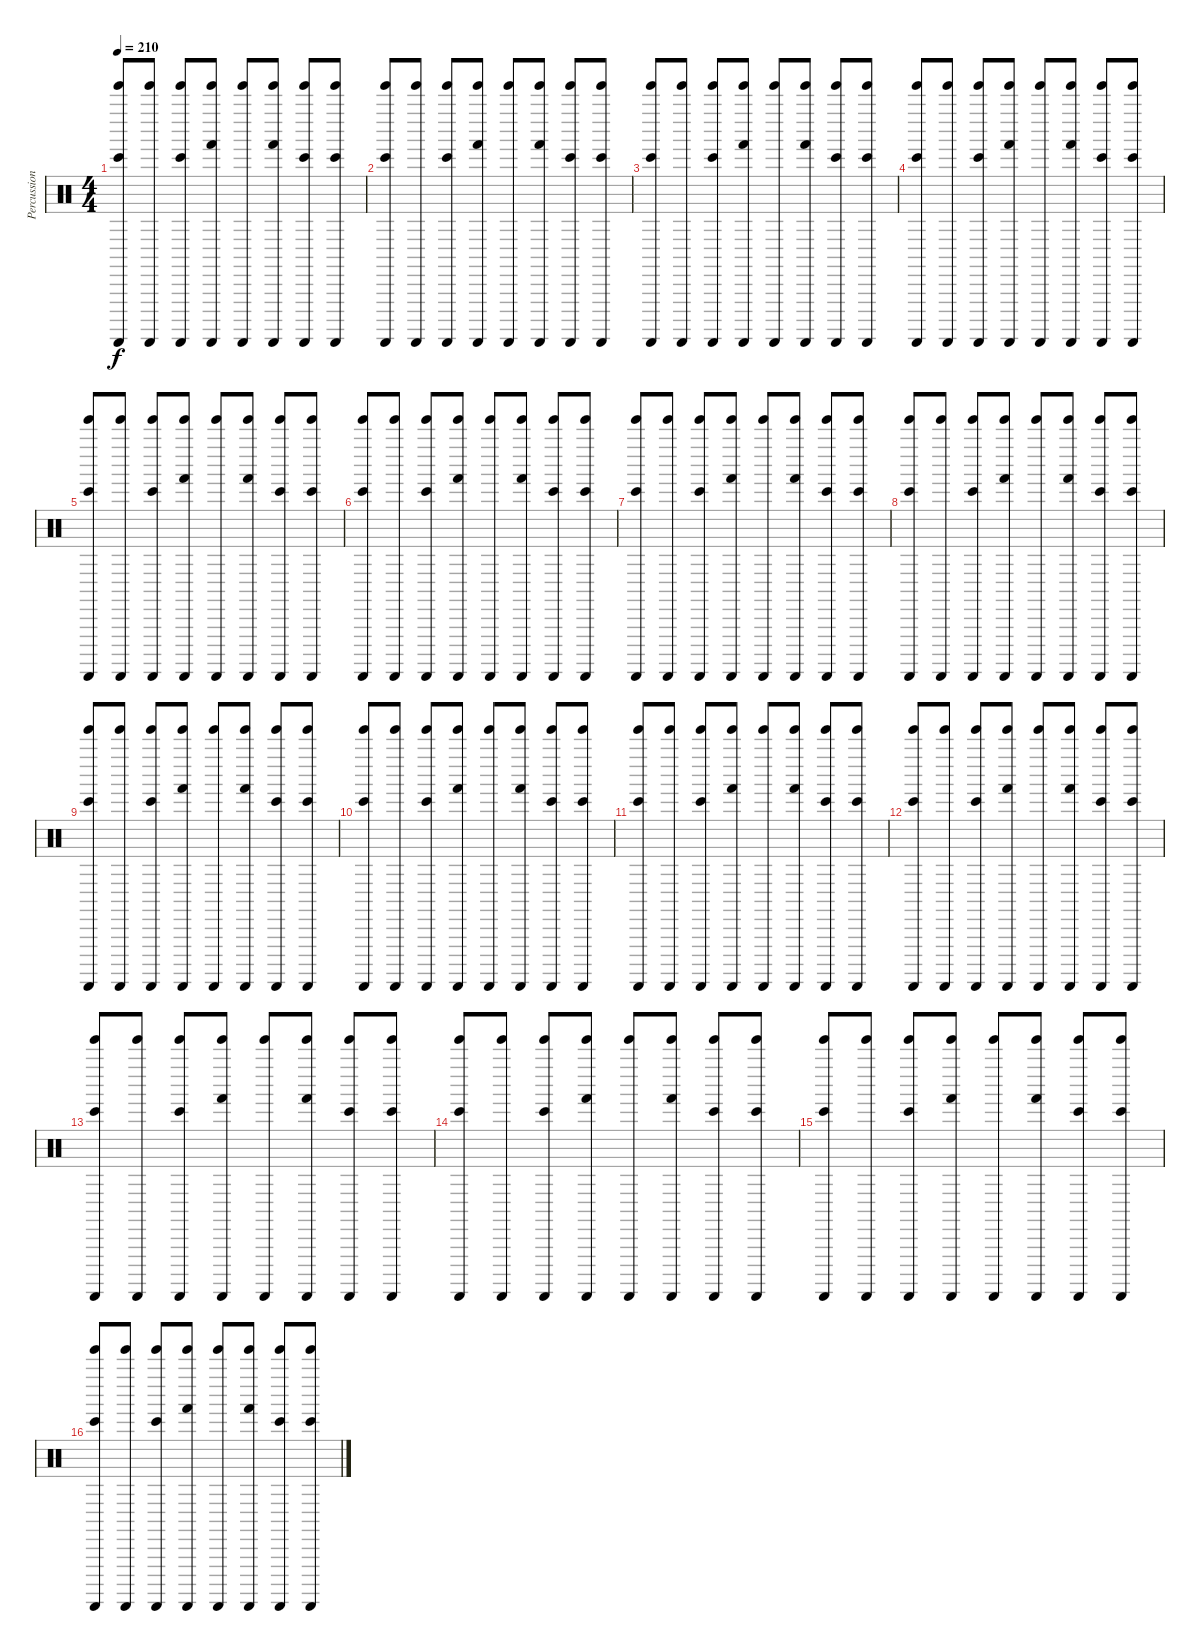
\track ("Percussion" "Percussion") {instrument percussion}
\staff {score}
\articulation defaults
\ts (4 4)
\tempo 210
\clef neutral
\ks c
("Guiro (scrap-return)" "Tinkle Bell (hit)" "Bongo High (hit)").8{dy f} ("Guiro (scrap-return)" "Tinkle Bell (hit)").8 ("Guiro (scrap-return)" "Tinkle Bell (hit)" "Bongo High (hit)").8 ("Guiro (scrap-return)" "Tinkle Bell (hit)" "Hand (hit)").8 ("Guiro (scrap-return)" "Tinkle Bell (hit)").8 ("Guiro (scrap-return)" "Tinkle Bell (hit)" "Hand (hit)").8 ("Guiro (scrap-return)" "Tinkle Bell (hit)" "Bongo High (hit)").8 ("Guiro (scrap-return)" "Tinkle Bell (hit)" "Bongo High (hit)").8 |
("Guiro (scrap-return)" "Tinkle Bell (hit)" "Bongo High (hit)").8 ("Guiro (scrap-return)" "Tinkle Bell (hit)").8 ("Guiro (scrap-return)" "Tinkle Bell (hit)" "Bongo High (hit)").8 ("Guiro (scrap-return)" "Tinkle Bell (hit)" "Hand (hit)").8 ("Guiro (scrap-return)" "Tinkle Bell (hit)").8 ("Guiro (scrap-return)" "Tinkle Bell (hit)" "Hand (hit)").8 ("Guiro (scrap-return)" "Tinkle Bell (hit)" "Bongo High (hit)").8 ("Guiro (scrap-return)" "Tinkle Bell (hit)" "Bongo High (hit)").8 |
("Guiro (scrap-return)" "Tinkle Bell (hit)" "Bongo High (hit)").8 ("Guiro (scrap-return)" "Tinkle Bell (hit)").8 ("Guiro (scrap-return)" "Tinkle Bell (hit)" "Bongo High (hit)").8 ("Guiro (scrap-return)" "Tinkle Bell (hit)" "Hand (hit)").8 ("Guiro (scrap-return)" "Tinkle Bell (hit)").8 ("Guiro (scrap-return)" "Tinkle Bell (hit)" "Hand (hit)").8 ("Guiro (scrap-return)" "Tinkle Bell (hit)" "Bongo High (hit)").8 ("Guiro (scrap-return)" "Tinkle Bell (hit)" "Bongo High (hit)").8 |
("Guiro (scrap-return)" "Tinkle Bell (hit)" "Bongo High (hit)").8 ("Guiro (scrap-return)" "Tinkle Bell (hit)").8 ("Guiro (scrap-return)" "Tinkle Bell (hit)" "Bongo High (hit)").8 ("Guiro (scrap-return)" "Tinkle Bell (hit)" "Hand (hit)").8 ("Guiro (scrap-return)" "Tinkle Bell (hit)").8 ("Guiro (scrap-return)" "Tinkle Bell (hit)" "Hand (hit)").8 ("Guiro (scrap-return)" "Tinkle Bell (hit)" "Bongo High (hit)").8 ("Guiro (scrap-return)" "Tinkle Bell (hit)" "Bongo High (hit)").8 |
("Guiro (scrap-return)" "Tinkle Bell (hit)" "Bongo High (hit)").8 ("Guiro (scrap-return)" "Tinkle Bell (hit)").8 ("Guiro (scrap-return)" "Tinkle Bell (hit)" "Bongo High (hit)").8 ("Guiro (scrap-return)" "Tinkle Bell (hit)" "Hand (hit)").8 ("Guiro (scrap-return)" "Tinkle Bell (hit)").8 ("Guiro (scrap-return)" "Tinkle Bell (hit)" "Hand (hit)").8 ("Guiro (scrap-return)" "Tinkle Bell (hit)" "Bongo High (hit)").8 ("Guiro (scrap-return)" "Tinkle Bell (hit)" "Bongo High (hit)").8 |
("Guiro (scrap-return)" "Tinkle Bell (hit)" "Bongo High (hit)").8 ("Guiro (scrap-return)" "Tinkle Bell (hit)").8 ("Guiro (scrap-return)" "Tinkle Bell (hit)" "Bongo High (hit)").8 ("Guiro (scrap-return)" "Tinkle Bell (hit)" "Hand (hit)").8 ("Guiro (scrap-return)" "Tinkle Bell (hit)").8 ("Guiro (scrap-return)" "Tinkle Bell (hit)" "Hand (hit)").8 ("Guiro (scrap-return)" "Tinkle Bell (hit)" "Bongo High (hit)").8 ("Guiro (scrap-return)" "Tinkle Bell (hit)" "Bongo High (hit)").8 |
("Guiro (scrap-return)" "Tinkle Bell (hit)" "Bongo High (hit)").8 ("Guiro (scrap-return)" "Tinkle Bell (hit)").8 ("Guiro (scrap-return)" "Tinkle Bell (hit)" "Bongo High (hit)").8 ("Guiro (scrap-return)" "Tinkle Bell (hit)" "Hand (hit)").8 ("Guiro (scrap-return)" "Tinkle Bell (hit)").8 ("Guiro (scrap-return)" "Tinkle Bell (hit)" "Hand (hit)").8 ("Guiro (scrap-return)" "Tinkle Bell (hit)" "Bongo High (hit)").8 ("Guiro (scrap-return)" "Tinkle Bell (hit)" "Bongo High (hit)").8 |
("Guiro (scrap-return)" "Tinkle Bell (hit)" "Bongo High (hit)").8 ("Guiro (scrap-return)" "Tinkle Bell (hit)").8 ("Guiro (scrap-return)" "Tinkle Bell (hit)" "Bongo High (hit)").8 ("Guiro (scrap-return)" "Tinkle Bell (hit)" "Hand (hit)").8 ("Guiro (scrap-return)" "Tinkle Bell (hit)").8 ("Guiro (scrap-return)" "Tinkle Bell (hit)" "Hand (hit)").8 ("Guiro (scrap-return)" "Tinkle Bell (hit)" "Bongo High (hit)").8 ("Guiro (scrap-return)" "Tinkle Bell (hit)" "Bongo High (hit)").8 |
("Guiro (scrap-return)" "Tinkle Bell (hit)" "Bongo High (hit)").8 ("Guiro (scrap-return)" "Tinkle Bell (hit)").8 ("Guiro (scrap-return)" "Tinkle Bell (hit)" "Bongo High (hit)").8 ("Guiro (scrap-return)" "Tinkle Bell (hit)" "Hand (hit)").8 ("Guiro (scrap-return)" "Tinkle Bell (hit)").8 ("Guiro (scrap-return)" "Tinkle Bell (hit)" "Hand (hit)").8 ("Guiro (scrap-return)" "Tinkle Bell (hit)" "Bongo High (hit)").8 ("Guiro (scrap-return)" "Tinkle Bell (hit)" "Bongo High (hit)").8 |
("Guiro (scrap-return)" "Tinkle Bell (hit)" "Bongo High (hit)").8 ("Guiro (scrap-return)" "Tinkle Bell (hit)").8 ("Guiro (scrap-return)" "Tinkle Bell (hit)" "Bongo High (hit)").8 ("Guiro (scrap-return)" "Tinkle Bell (hit)" "Hand (hit)").8 ("Guiro (scrap-return)" "Tinkle Bell (hit)").8 ("Guiro (scrap-return)" "Tinkle Bell (hit)" "Hand (hit)").8 ("Guiro (scrap-return)" "Tinkle Bell (hit)" "Bongo High (hit)").8 ("Guiro (scrap-return)" "Tinkle Bell (hit)" "Bongo High (hit)").8 |
("Guiro (scrap-return)" "Tinkle Bell (hit)" "Bongo High (hit)").8 ("Guiro (scrap-return)" "Tinkle Bell (hit)").8 ("Guiro (scrap-return)" "Tinkle Bell (hit)" "Bongo High (hit)").8 ("Guiro (scrap-return)" "Tinkle Bell (hit)" "Hand (hit)").8 ("Guiro (scrap-return)" "Tinkle Bell (hit)").8 ("Guiro (scrap-return)" "Tinkle Bell (hit)" "Hand (hit)").8 ("Guiro (scrap-return)" "Tinkle Bell (hit)" "Bongo High (hit)").8 ("Guiro (scrap-return)" "Tinkle Bell (hit)" "Bongo High (hit)").8 |
("Guiro (scrap-return)" "Tinkle Bell (hit)" "Bongo High (hit)").8 ("Guiro (scrap-return)" "Tinkle Bell (hit)").8 ("Guiro (scrap-return)" "Tinkle Bell (hit)" "Bongo High (hit)").8 ("Guiro (scrap-return)" "Tinkle Bell (hit)" "Hand (hit)").8 ("Guiro (scrap-return)" "Tinkle Bell (hit)").8 ("Guiro (scrap-return)" "Tinkle Bell (hit)" "Hand (hit)").8 ("Guiro (scrap-return)" "Tinkle Bell (hit)" "Bongo High (hit)").8 ("Guiro (scrap-return)" "Tinkle Bell (hit)" "Bongo High (hit)").8 |
("Guiro (scrap-return)" "Tinkle Bell (hit)" "Bongo High (hit)").8 ("Guiro (scrap-return)" "Tinkle Bell (hit)").8 ("Guiro (scrap-return)" "Tinkle Bell (hit)" "Bongo High (hit)").8 ("Guiro (scrap-return)" "Tinkle Bell (hit)" "Hand (hit)").8 ("Guiro (scrap-return)" "Tinkle Bell (hit)").8 ("Guiro (scrap-return)" "Tinkle Bell (hit)" "Hand (hit)").8 ("Guiro (scrap-return)" "Tinkle Bell (hit)" "Bongo High (hit)").8 ("Guiro (scrap-return)" "Tinkle Bell (hit)" "Bongo High (hit)").8 |
("Guiro (scrap-return)" "Tinkle Bell (hit)" "Bongo High (hit)").8 ("Guiro (scrap-return)" "Tinkle Bell (hit)").8 ("Guiro (scrap-return)" "Tinkle Bell (hit)" "Bongo High (hit)").8 ("Guiro (scrap-return)" "Tinkle Bell (hit)" "Hand (hit)").8 ("Guiro (scrap-return)" "Tinkle Bell (hit)").8 ("Guiro (scrap-return)" "Tinkle Bell (hit)" "Hand (hit)").8 ("Guiro (scrap-return)" "Tinkle Bell (hit)" "Bongo High (hit)").8 ("Guiro (scrap-return)" "Tinkle Bell (hit)" "Bongo High (hit)").8 |
("Guiro (scrap-return)" "Tinkle Bell (hit)" "Bongo High (hit)").8 ("Guiro (scrap-return)" "Tinkle Bell (hit)").8 ("Guiro (scrap-return)" "Tinkle Bell (hit)" "Bongo High (hit)").8 ("Guiro (scrap-return)" "Tinkle Bell (hit)" "Hand (hit)").8 ("Guiro (scrap-return)" "Tinkle Bell (hit)").8 ("Guiro (scrap-return)" "Tinkle Bell (hit)" "Hand (hit)").8 ("Guiro (scrap-return)" "Tinkle Bell (hit)" "Bongo High (hit)").8 ("Guiro (scrap-return)" "Tinkle Bell (hit)" "Bongo High (hit)").8 |
("Guiro (scrap-return)" "Tinkle Bell (hit)" "Bongo High (hit)").8 ("Guiro (scrap-return)" "Tinkle Bell (hit)").8 ("Guiro (scrap-return)" "Tinkle Bell (hit)" "Bongo High (hit)").8 ("Guiro (scrap-return)" "Tinkle Bell (hit)" "Hand (hit)").8 ("Guiro (scrap-return)" "Tinkle Bell (hit)").8 ("Guiro (scrap-return)" "Tinkle Bell (hit)" "Hand (hit)").8 ("Guiro (scrap-return)" "Tinkle Bell (hit)" "Bongo High (hit)").8 ("Guiro (scrap-return)" "Tinkle Bell (hit)" "Bongo High (hit)").8
